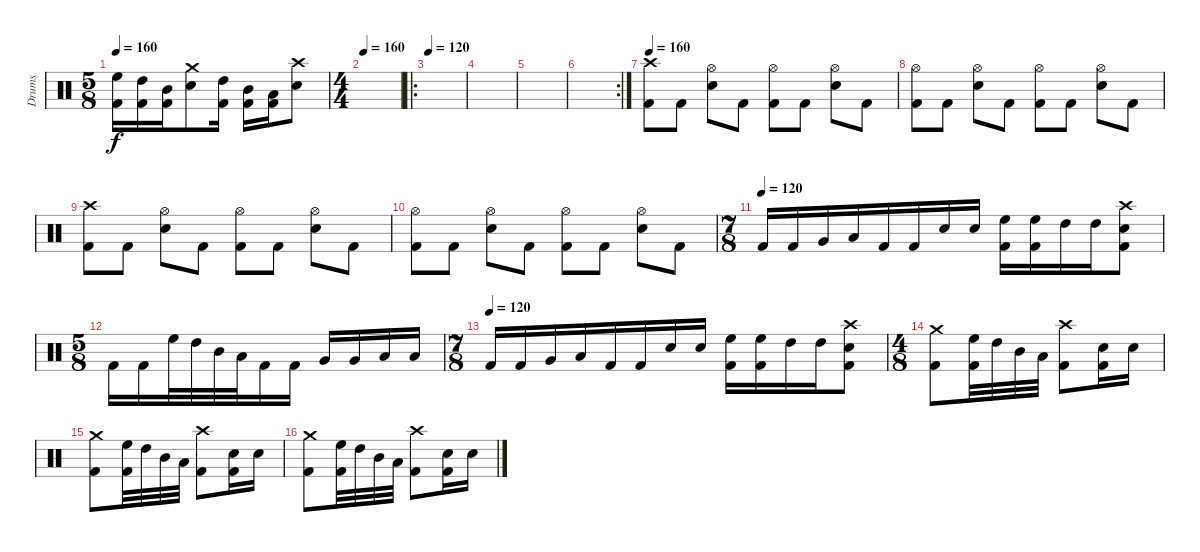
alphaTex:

\track ("Drums" "Drums") {instrument percussion}
\staff {score}
\articulation defaults
\ts (5 8)
\tempo 160
\clef neutral
\ks c
("High Floor Tom (hit)" "Kick (hit) 2").16{dy f} ("High Tom (hit)" "Kick (hit) 2").16 ("Mid Tom (hit)" "Kick (hit) 2").16 ("Crash medium (hit)" "Snare (hit) 2").8 ("High Tom (hit)" "Kick (hit) 2").16 ("Mid Tom (hit)" "Kick (hit) 2").16 ("Low Tom (hit)" "Kick (hit) 2").16 ("Crash high (hit)" "Snare (hit) 2").8 |
\ts (4 4)
\tempo 160
|
\ro
\tempo 120
|
|
|
\rc 2
|
\tempo 160
("Crash high (hit)" "Kick (hit) 2").8 "Kick (hit) 2".8 ("Hi-Hat (open)" "Electric Snare (hit)").8 "Kick (hit) 2".8 ("Hi-Hat (open)" "Kick (hit) 2").8 "Kick (hit) 2".8 ("Hi-Hat (open)" "Electric Snare (hit)").8 "Kick (hit) 2".8 |
("Hi-Hat (open)" "Kick (hit) 2").8 "Kick (hit) 2".8 ("Hi-Hat (open)" "Electric Snare (hit)").8 "Kick (hit) 2".8 ("Hi-Hat (open)" "Kick (hit) 2").8 "Kick (hit) 2".8 ("Hi-Hat (open)" "Electric Snare (hit)").8 "Kick (hit) 2".8 |
("Crash high (hit)" "Kick (hit) 2").8 "Kick (hit) 2".8 ("Hi-Hat (open)" "Electric Snare (hit)").8 "Kick (hit) 2".8 ("Hi-Hat (open)" "Kick (hit) 2").8 "Kick (hit) 2".8 ("Hi-Hat (open)" "Electric Snare (hit)").8 "Kick (hit) 2".8 |
("Hi-Hat (open)" "Kick (hit) 2").8 "Kick (hit) 2".8 ("Hi-Hat (open)" "Electric Snare (hit)").8 "Kick (hit) 2".8 ("Hi-Hat (open)" "Kick (hit) 2").8 "Kick (hit) 2".8 ("Hi-Hat (open)" "Electric Snare (hit)").8 "Kick (hit) 2".8 |
\ts (7 8)
\tempo (120)
"Kick (hit) 2".16 "Kick (hit) 2".16 "Very Low Tom (hit)".16 "Low Floor Tom (hit)".16 "Kick (hit) 2".16 "Kick (hit) 2".16 "Electric Snare (hit)".16 "Electric Snare (hit)".16 ("High Floor Tom (hit)" "Kick (hit) 2").16 ("High Floor Tom (hit)" "Kick (hit) 2").16 "High Tom (hit)".16 "High Tom (hit)".16 ("Crash high (hit)" "Electric Snare (hit)" "Kick (hit) 2").8 |
\ts (5 8)
"Kick (hit) 2".16 "Kick (hit) 2".16 "High Floor Tom (hit)".32 "High Tom (hit)".32 "Mid Tom (hit)".32 "Low Tom (hit)".32 "Kick (hit) 2".16 "Kick (hit) 2".16 "Very Low Tom (hit)".16 "Very Low Tom (hit)".16 "Low Floor Tom (hit)".16 "Low Floor Tom (hit)".16 |
\ts (7 8)
\tempo (120)
"Kick (hit) 2".16 "Kick (hit) 2".16 "Very Low Tom (hit)".16 "Low Floor Tom (hit)".16 "Kick (hit) 2".16 "Kick (hit) 2".16 "Electric Snare (hit)".16 "Electric Snare (hit)".16 ("High Floor Tom (hit)" "Kick (hit) 2").16 ("High Floor Tom (hit)" "Kick (hit) 2").16 "High Tom (hit)".16 "High Tom (hit)".16 ("Crash high (hit)" "Electric Snare (hit)" "Kick (hit) 2").8 |
\ts (4 8)
("Crash medium (hit)" "Kick (hit) 2").8 ("High Floor Tom (hit)" "Kick (hit) 2").32 "High Tom (hit)".32 "Mid Tom (hit)".32 "Low Tom (hit)".32 ("Crash high (hit)" "Kick (hit) 2").8 ("Electric Snare (hit)" "Kick (hit) 2").16 "Electric Snare (hit)".16 |
("Crash medium (hit)" "Kick (hit) 2").8 ("High Floor Tom (hit)" "Kick (hit) 2").32 "High Tom (hit)".32 "Mid Tom (hit)".32 "Low Tom (hit)".32 ("Crash high (hit)" "Kick (hit) 2").8 ("Electric Snare (hit)" "Kick (hit) 2").16 "Electric Snare (hit)".16 |
("Crash medium (hit)" "Kick (hit) 2").8 ("High Floor Tom (hit)" "Kick (hit) 2").32 "High Tom (hit)".32 "Mid Tom (hit)".32 "Low Tom (hit)".32 ("Crash high (hit)" "Kick (hit) 2").8 ("Electric Snare (hit)" "Kick (hit) 2").16 "Electric Snare (hit)".16
